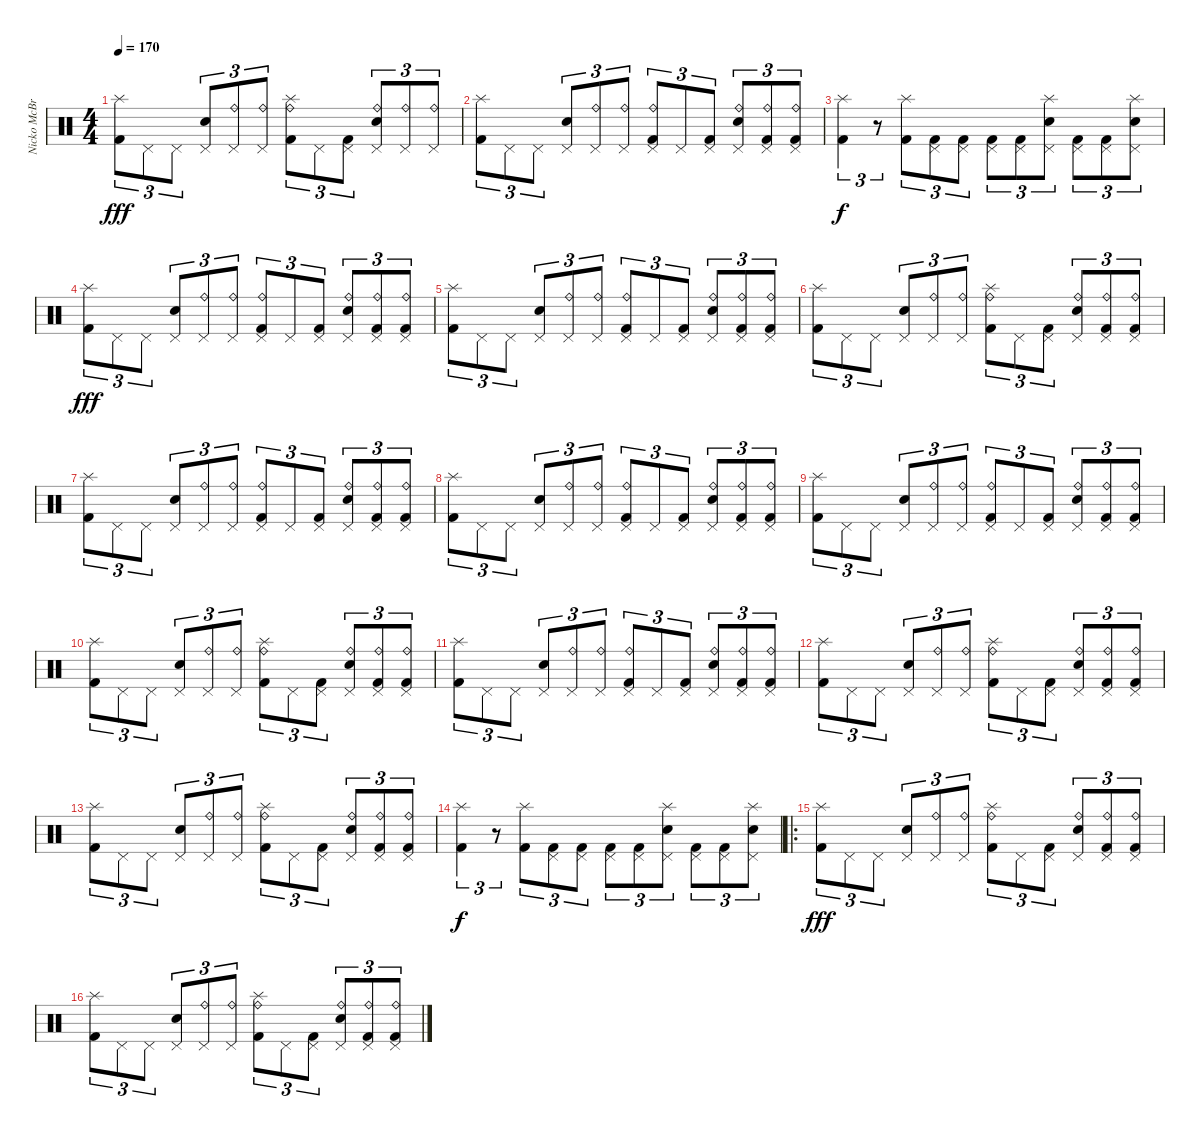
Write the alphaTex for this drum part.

\track ("Nicko McBrian (Drums)" "Nicko McBr") {instrument percussion}
\staff {score}
\articulation defaults
\ts (4 4)
\tempo 170
\clef neutral
\ks c
("Splash (hit)" "Kick (hit) 2").8{tu (3 2) dy fff} "Pedal Hi-Hat (hit)".8{tu (3 2)} "Pedal Hi-Hat (hit)".8{tu (3 2)} ("Pedal Hi-Hat (hit)" "Snare (hit) 2").8{tu (3 2)} ("Pedal Hi-Hat (hit)" "Ride (bell)").8{tu (3 2)} ("Pedal Hi-Hat (hit)" "Ride (bell)").8{tu (3 2)} ("Splash (hit)" "Kick (hit) 2" "Ride (bell)").8{tu (3 2)} "Pedal Hi-Hat (hit)".8{tu (3 2)} ("Pedal Hi-Hat (hit)" "Kick (hit) 2").8{tu (3 2)} ("Pedal Hi-Hat (hit)" "Snare (hit) 2" "Ride (bell)").8{tu (3 2)} ("Pedal Hi-Hat (hit)" "Ride (bell)").8{tu (3 2)} ("Pedal Hi-Hat (hit)" "Ride (bell)").8{tu (3 2)} |
("Splash (hit)" "Kick (hit) 2").8{tu (3 2)} "Pedal Hi-Hat (hit)".8{tu (3 2)} "Pedal Hi-Hat (hit)".8{tu (3 2)} ("Pedal Hi-Hat (hit)" "Snare (hit) 2").8{tu (3 2)} ("Pedal Hi-Hat (hit)" "Ride (bell)").8{tu (3 2)} ("Pedal Hi-Hat (hit)" "Ride (bell)").8{tu (3 2)} ("Pedal Hi-Hat (hit)" "Kick (hit) 2" "Ride (bell)").8{tu (3 2)} "Pedal Hi-Hat (hit)".8{tu (3 2)} ("Pedal Hi-Hat (hit)" "Kick (hit) 2").8{tu (3 2)} ("Pedal Hi-Hat (hit)" "Snare (hit) 2" "Ride (bell)").8{tu (3 2)} ("Pedal Hi-Hat (hit)" "Kick (hit) 2" "Ride (bell)").8{tu (3 2)} ("Pedal Hi-Hat (hit)" "Kick (hit) 2" "Ride (bell)").8{tu (3 2)} |
("Splash (hit)" "Kick (hit) 2").4{tu (3 2) dy f} r.8{tu (3 2)} ("Splash (hit)" "Kick (hit) 2").8{tu (3 2)} ("Pedal Hi-Hat (hit)" "Kick (hit) 2").8{tu (3 2)} ("Pedal Hi-Hat (hit)" "Kick (hit) 2").8{tu (3 2)} ("Pedal Hi-Hat (hit)" "Kick (hit) 2").8{tu (3 2)} ("Pedal Hi-Hat (hit)" "Kick (hit) 2").8{tu (3 2)} ("Pedal Hi-Hat (hit)" "Snare (hit) 2" "Splash (hit)").8{tu (3 2)} ("Pedal Hi-Hat (hit)" "Kick (hit) 2").8{tu (3 2)} ("Pedal Hi-Hat (hit)" "Kick (hit) 2").8{tu (3 2)} ("Pedal Hi-Hat (hit)" "Snare (hit) 2" "Splash (hit)").8{tu (3 2)} |
("Splash (hit)" "Kick (hit) 2").8{tu (3 2) dy fff} "Pedal Hi-Hat (hit)".8{tu (3 2)} "Pedal Hi-Hat (hit)".8{tu (3 2)} ("Pedal Hi-Hat (hit)" "Snare (hit) 2").8{tu (3 2)} ("Pedal Hi-Hat (hit)" "Ride (bell)").8{tu (3 2)} ("Pedal Hi-Hat (hit)" "Ride (bell)").8{tu (3 2)} ("Pedal Hi-Hat (hit)" "Kick (hit) 2" "Ride (bell)").8{tu (3 2)} "Pedal Hi-Hat (hit)".8{tu (3 2)} ("Pedal Hi-Hat (hit)" "Kick (hit) 2").8{tu (3 2)} ("Pedal Hi-Hat (hit)" "Snare (hit) 2" "Ride (bell)").8{tu (3 2)} ("Pedal Hi-Hat (hit)" "Kick (hit) 2" "Ride (bell)").8{tu (3 2)} ("Pedal Hi-Hat (hit)" "Kick (hit) 2" "Ride (bell)").8{tu (3 2)} |
("Splash (hit)" "Kick (hit) 2").8{tu (3 2)} "Pedal Hi-Hat (hit)".8{tu (3 2)} "Pedal Hi-Hat (hit)".8{tu (3 2)} ("Pedal Hi-Hat (hit)" "Snare (hit) 2").8{tu (3 2)} ("Pedal Hi-Hat (hit)" "Ride (bell)").8{tu (3 2)} ("Pedal Hi-Hat (hit)" "Ride (bell)").8{tu (3 2)} ("Pedal Hi-Hat (hit)" "Kick (hit) 2" "Ride (bell)").8{tu (3 2)} "Pedal Hi-Hat (hit)".8{tu (3 2)} ("Pedal Hi-Hat (hit)" "Kick (hit) 2").8{tu (3 2)} ("Pedal Hi-Hat (hit)" "Snare (hit) 2" "Ride (bell)").8{tu (3 2)} ("Pedal Hi-Hat (hit)" "Kick (hit) 2" "Ride (bell)").8{tu (3 2)} ("Pedal Hi-Hat (hit)" "Kick (hit) 2" "Ride (bell)").8{tu (3 2)} |
("Splash (hit)" "Kick (hit) 2").8{tu (3 2)} "Pedal Hi-Hat (hit)".8{tu (3 2)} "Pedal Hi-Hat (hit)".8{tu (3 2)} ("Pedal Hi-Hat (hit)" "Snare (hit) 2").8{tu (3 2)} ("Pedal Hi-Hat (hit)" "Ride (bell)").8{tu (3 2)} ("Pedal Hi-Hat (hit)" "Ride (bell)").8{tu (3 2)} ("Splash (hit)" "Kick (hit) 2" "Ride (bell)").8{tu (3 2)} "Pedal Hi-Hat (hit)".8{tu (3 2)} ("Pedal Hi-Hat (hit)" "Kick (hit) 2").8{tu (3 2)} ("Pedal Hi-Hat (hit)" "Snare (hit) 2" "Ride (bell)").8{tu (3 2)} ("Pedal Hi-Hat (hit)" "Kick (hit) 2" "Ride (bell)").8{tu (3 2)} ("Pedal Hi-Hat (hit)" "Kick (hit) 2" "Ride (bell)").8{tu (3 2)} |
("Splash (hit)" "Kick (hit) 2").8{tu (3 2)} "Pedal Hi-Hat (hit)".8{tu (3 2)} "Pedal Hi-Hat (hit)".8{tu (3 2)} ("Pedal Hi-Hat (hit)" "Snare (hit) 2").8{tu (3 2)} ("Pedal Hi-Hat (hit)" "Ride (bell)").8{tu (3 2)} ("Pedal Hi-Hat (hit)" "Ride (bell)").8{tu (3 2)} ("Pedal Hi-Hat (hit)" "Kick (hit) 2" "Ride (bell)").8{tu (3 2)} "Pedal Hi-Hat (hit)".8{tu (3 2)} ("Pedal Hi-Hat (hit)" "Kick (hit) 2").8{tu (3 2)} ("Pedal Hi-Hat (hit)" "Snare (hit) 2" "Ride (bell)").8{tu (3 2)} ("Pedal Hi-Hat (hit)" "Kick (hit) 2" "Ride (bell)").8{tu (3 2)} ("Pedal Hi-Hat (hit)" "Kick (hit) 2" "Ride (bell)").8{tu (3 2)} |
("Splash (hit)" "Kick (hit) 2").8{tu (3 2)} "Pedal Hi-Hat (hit)".8{tu (3 2)} "Pedal Hi-Hat (hit)".8{tu (3 2)} ("Pedal Hi-Hat (hit)" "Snare (hit) 2").8{tu (3 2)} ("Pedal Hi-Hat (hit)" "Ride (bell)").8{tu (3 2)} ("Pedal Hi-Hat (hit)" "Ride (bell)").8{tu (3 2)} ("Pedal Hi-Hat (hit)" "Kick (hit) 2" "Ride (bell)").8{tu (3 2)} "Pedal Hi-Hat (hit)".8{tu (3 2)} ("Pedal Hi-Hat (hit)" "Kick (hit) 2").8{tu (3 2)} ("Pedal Hi-Hat (hit)" "Snare (hit) 2" "Ride (bell)").8{tu (3 2)} ("Pedal Hi-Hat (hit)" "Kick (hit) 2" "Ride (bell)").8{tu (3 2)} ("Pedal Hi-Hat (hit)" "Kick (hit) 2" "Ride (bell)").8{tu (3 2)} |
("Splash (hit)" "Kick (hit) 2").8{tu (3 2)} "Pedal Hi-Hat (hit)".8{tu (3 2)} "Pedal Hi-Hat (hit)".8{tu (3 2)} ("Pedal Hi-Hat (hit)" "Snare (hit) 2").8{tu (3 2)} ("Pedal Hi-Hat (hit)" "Ride (bell)").8{tu (3 2)} ("Pedal Hi-Hat (hit)" "Ride (bell)").8{tu (3 2)} ("Pedal Hi-Hat (hit)" "Kick (hit) 2" "Ride (bell)").8{tu (3 2)} "Pedal Hi-Hat (hit)".8{tu (3 2)} ("Pedal Hi-Hat (hit)" "Kick (hit) 2").8{tu (3 2)} ("Pedal Hi-Hat (hit)" "Snare (hit) 2" "Ride (bell)").8{tu (3 2)} ("Pedal Hi-Hat (hit)" "Kick (hit) 2" "Ride (bell)").8{tu (3 2)} ("Pedal Hi-Hat (hit)" "Kick (hit) 2" "Ride (bell)").8{tu (3 2)} |
("Splash (hit)" "Kick (hit) 2").8{tu (3 2)} "Pedal Hi-Hat (hit)".8{tu (3 2)} "Pedal Hi-Hat (hit)".8{tu (3 2)} ("Pedal Hi-Hat (hit)" "Snare (hit) 2").8{tu (3 2)} ("Pedal Hi-Hat (hit)" "Ride (bell)").8{tu (3 2)} ("Pedal Hi-Hat (hit)" "Ride (bell)").8{tu (3 2)} ("Splash (hit)" "Kick (hit) 2" "Ride (bell)").8{tu (3 2)} "Pedal Hi-Hat (hit)".8{tu (3 2)} ("Pedal Hi-Hat (hit)" "Kick (hit) 2").8{tu (3 2)} ("Pedal Hi-Hat (hit)" "Snare (hit) 2" "Ride (bell)").8{tu (3 2)} ("Pedal Hi-Hat (hit)" "Kick (hit) 2" "Ride (bell)").8{tu (3 2)} ("Pedal Hi-Hat (hit)" "Kick (hit) 2" "Ride (bell)").8{tu (3 2)} |
("Splash (hit)" "Kick (hit) 2").8{tu (3 2)} "Pedal Hi-Hat (hit)".8{tu (3 2)} "Pedal Hi-Hat (hit)".8{tu (3 2)} ("Pedal Hi-Hat (hit)" "Snare (hit) 2").8{tu (3 2)} ("Pedal Hi-Hat (hit)" "Ride (bell)").8{tu (3 2)} ("Pedal Hi-Hat (hit)" "Ride (bell)").8{tu (3 2)} ("Pedal Hi-Hat (hit)" "Kick (hit) 2" "Ride (bell)").8{tu (3 2)} "Pedal Hi-Hat (hit)".8{tu (3 2)} ("Pedal Hi-Hat (hit)" "Kick (hit) 2").8{tu (3 2)} ("Pedal Hi-Hat (hit)" "Snare (hit) 2" "Ride (bell)").8{tu (3 2)} ("Pedal Hi-Hat (hit)" "Kick (hit) 2" "Ride (bell)").8{tu (3 2)} ("Pedal Hi-Hat (hit)" "Kick (hit) 2" "Ride (bell)").8{tu (3 2)} |
("Splash (hit)" "Kick (hit) 2").8{tu (3 2)} "Pedal Hi-Hat (hit)".8{tu (3 2)} "Pedal Hi-Hat (hit)".8{tu (3 2)} ("Pedal Hi-Hat (hit)" "Snare (hit) 2").8{tu (3 2)} ("Pedal Hi-Hat (hit)" "Ride (bell)").8{tu (3 2)} ("Pedal Hi-Hat (hit)" "Ride (bell)").8{tu (3 2)} ("Splash (hit)" "Kick (hit) 2" "Ride (bell)").8{tu (3 2)} "Pedal Hi-Hat (hit)".8{tu (3 2)} ("Pedal Hi-Hat (hit)" "Kick (hit) 2").8{tu (3 2)} ("Pedal Hi-Hat (hit)" "Snare (hit) 2" "Ride (bell)").8{tu (3 2)} ("Pedal Hi-Hat (hit)" "Kick (hit) 2" "Ride (bell)").8{tu (3 2)} ("Pedal Hi-Hat (hit)" "Kick (hit) 2" "Ride (bell)").8{tu (3 2)} |
("Splash (hit)" "Kick (hit) 2").8{tu (3 2)} "Pedal Hi-Hat (hit)".8{tu (3 2)} "Pedal Hi-Hat (hit)".8{tu (3 2)} ("Pedal Hi-Hat (hit)" "Snare (hit) 2").8{tu (3 2)} ("Pedal Hi-Hat (hit)" "Ride (bell)").8{tu (3 2)} ("Pedal Hi-Hat (hit)" "Ride (bell)").8{tu (3 2)} ("Splash (hit)" "Kick (hit) 2" "Ride (bell)").8{tu (3 2)} "Pedal Hi-Hat (hit)".8{tu (3 2)} ("Pedal Hi-Hat (hit)" "Kick (hit) 2").8{tu (3 2)} ("Pedal Hi-Hat (hit)" "Snare (hit) 2" "Ride (bell)").8{tu (3 2)} ("Pedal Hi-Hat (hit)" "Kick (hit) 2" "Ride (bell)").8{tu (3 2)} ("Pedal Hi-Hat (hit)" "Kick (hit) 2" "Ride (bell)").8{tu (3 2)} |
("Splash (hit)" "Kick (hit) 2").4{tu (3 2) dy f} r.8{tu (3 2)} ("Splash (hit)" "Kick (hit) 2").8{tu (3 2)} ("Pedal Hi-Hat (hit)" "Kick (hit) 2").8{tu (3 2)} ("Pedal Hi-Hat (hit)" "Kick (hit) 2").8{tu (3 2)} ("Pedal Hi-Hat (hit)" "Kick (hit) 2").8{tu (3 2)} ("Pedal Hi-Hat (hit)" "Kick (hit) 2").8{tu (3 2)} ("Pedal Hi-Hat (hit)" "Snare (hit) 2" "Splash (hit)").8{tu (3 2)} ("Pedal Hi-Hat (hit)" "Kick (hit) 2").8{tu (3 2)} ("Pedal Hi-Hat (hit)" "Kick (hit) 2").8{tu (3 2)} ("Pedal Hi-Hat (hit)" "Snare (hit) 2" "Splash (hit)").8{tu (3 2)} |
\ro
("Splash (hit)" "Kick (hit) 2").8{tu (3 2) dy fff} "Pedal Hi-Hat (hit)".8{tu (3 2)} "Pedal Hi-Hat (hit)".8{tu (3 2)} ("Pedal Hi-Hat (hit)" "Snare (hit) 2").8{tu (3 2)} ("Pedal Hi-Hat (hit)" "Ride (bell)").8{tu (3 2)} ("Pedal Hi-Hat (hit)" "Ride (bell)").8{tu (3 2)} ("Splash (hit)" "Kick (hit) 2" "Ride (bell)").8{tu (3 2)} "Pedal Hi-Hat (hit)".8{tu (3 2)} ("Pedal Hi-Hat (hit)" "Kick (hit) 2").8{tu (3 2)} ("Pedal Hi-Hat (hit)" "Snare (hit) 2" "Ride (bell)").8{tu (3 2)} ("Pedal Hi-Hat (hit)" "Kick (hit) 2" "Ride (bell)").8{tu (3 2)} ("Pedal Hi-Hat (hit)" "Kick (hit) 2" "Ride (bell)").8{tu (3 2)} |
("Splash (hit)" "Kick (hit) 2").8{tu (3 2)} "Pedal Hi-Hat (hit)".8{tu (3 2)} "Pedal Hi-Hat (hit)".8{tu (3 2)} ("Pedal Hi-Hat (hit)" "Snare (hit) 2").8{tu (3 2)} ("Pedal Hi-Hat (hit)" "Ride (bell)").8{tu (3 2)} ("Pedal Hi-Hat (hit)" "Ride (bell)").8{tu (3 2)} ("Splash (hit)" "Kick (hit) 2" "Ride (bell)").8{tu (3 2)} "Pedal Hi-Hat (hit)".8{tu (3 2)} ("Pedal Hi-Hat (hit)" "Kick (hit) 2").8{tu (3 2)} ("Pedal Hi-Hat (hit)" "Snare (hit) 2" "Ride (bell)").8{tu (3 2)} ("Pedal Hi-Hat (hit)" "Kick (hit) 2" "Ride (bell)").8{tu (3 2)} ("Pedal Hi-Hat (hit)" "Kick (hit) 2" "Ride (bell)").8{tu (3 2)}
